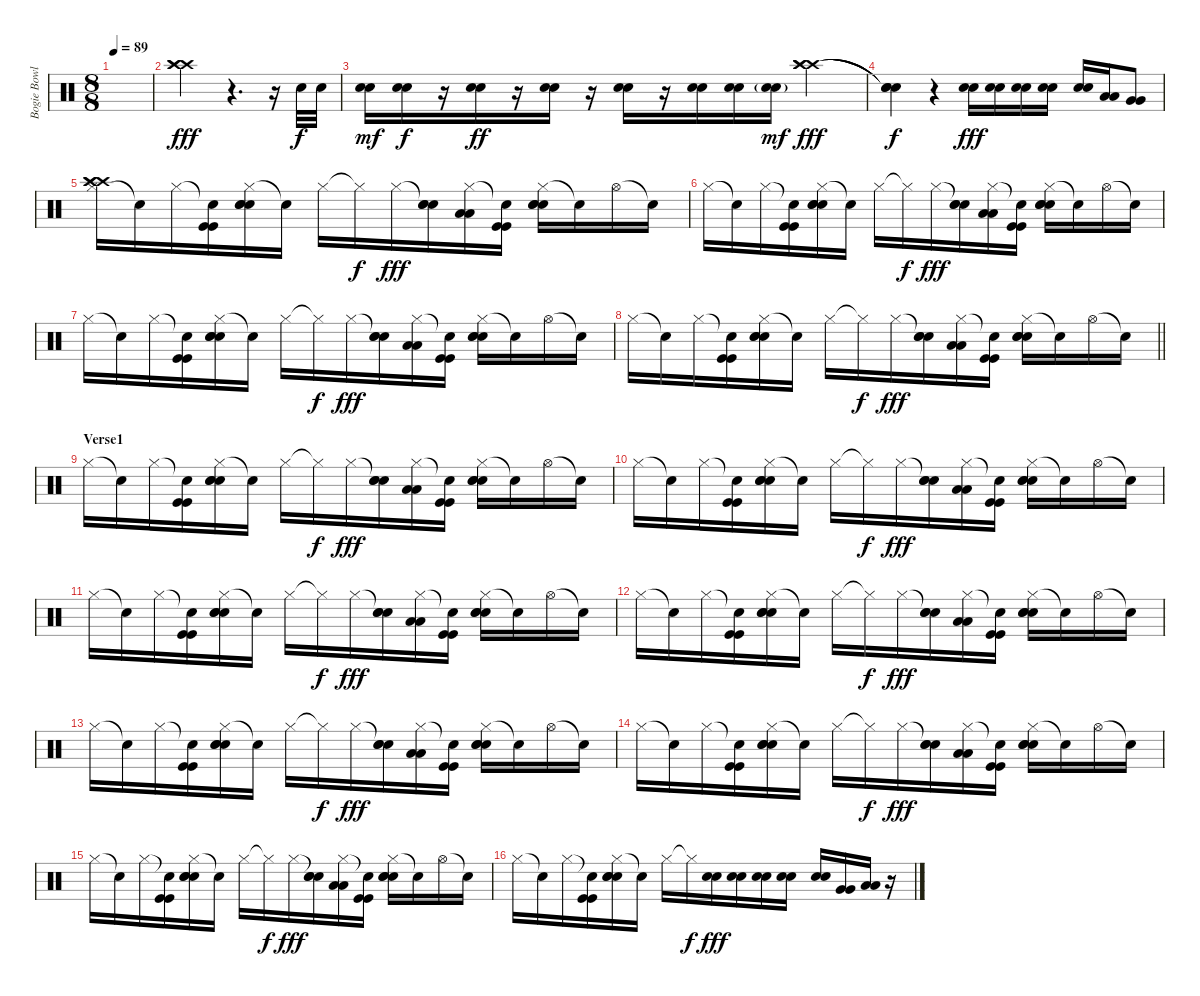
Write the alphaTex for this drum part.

\track ("Bogie Bowles Drums" "Bogie Bowl") {instrument percussion}
\staff {score}
\articulation defaults
\ts (8 8)
\tempo 89
\clef neutral
\ks c
|
("Crash high (hit)" "Crash high (hit)" "Crash high (hit)").2{dy fff} r.4{d} r.16 "Snare (hit) 2".32{dy f} "Snare (hit) 2".32 |
("Snare (hit) 2" "Snare (hit) 2").16{dy mf} ("Snare (hit) 2" "Snare (hit) 2").16{dy f} r.16 ("Snare (hit) 2" "Snare (hit) 2").16{dy ff} r.16 ("Snare (hit) 2" "Snare (hit) 2").16 r.16 ("Snare (hit) 2" "Snare (hit) 2").16 r.16 ("Snare (hit) 2" "Snare (hit) 2").16 ("Snare (hit) 2" "Snare (hit) 2").16 ("Snare (hit) 2"{g} "Snare (hit) 2"{g}).16{dy mf} ("Crash high (hit)" "Crash high (hit)" "Crash high (hit)").4{dy fff} |
("Snare (hit)"{t} "Snare (hit)"{t} "Snare (hit)"{t}).4{dy f} r.4 ("Snare (hit) 2" "Snare (hit) 2").16{dy fff} ("Snare (hit) 2" "Snare (hit) 2").16 ("Snare (hit) 2" "Snare (hit) 2").16 ("Snare (hit) 2" "Snare (hit) 2").16 ("Snare (hit) 2" "Snare (hit) 2").16 ("Low Tom (hit)" "Low Tom (hit)").16 ("Very Low Tom (hit)" "Very Low Tom (hit)").8 |
("Hi-Hat (closed)" "Crash high (hit)" "Crash high (hit)" "Crash high (hit)").16 "Snare (hit)"{t}.16 "Hi-Hat (closed)".16 ("Snare (hit)"{t} "Kick (hit)" "Kick (hit)").16 ("Hi-Hat (closed)" "Snare (hit) 2" "Snare (hit) 2" "Snare (hit) 2").16 "Snare (hit)"{t}.16 "Hi-Hat (closed)".16 "Hi-Hat (closed)"{t}.16{dy f} "Hi-Hat (closed)".16{dy fff} ("Snare (hit)"{t} "Snare (hit) 2" "Snare (hit) 2").16 ("Hi-Hat (closed)" "Low Tom (hit)" "Low Tom (hit)").16 ("Snare (hit)"{t} "Kick (hit)" "Kick (hit)").16 ("Hi-Hat (closed)" "Snare (hit) 2" "Snare (hit) 2" "Snare (hit) 2").16 "Snare (hit)"{t}.16 "Hi-Hat (open)".16 "Snare (hit)"{t}.16 |
"Hi-Hat (closed)".16 "Snare (hit)"{t}.16 "Hi-Hat (closed)".16 ("Snare (hit)"{t} "Kick (hit)" "Kick (hit)").16 ("Hi-Hat (closed)" "Snare (hit) 2" "Snare (hit) 2" "Snare (hit) 2").16 "Snare (hit)"{t}.16 "Hi-Hat (closed)".16 "Hi-Hat (closed)"{t}.16{dy f} "Hi-Hat (closed)".16{dy fff} ("Snare (hit)"{t} "Snare (hit) 2" "Snare (hit) 2").16 ("Hi-Hat (closed)" "Low Tom (hit)" "Low Tom (hit)").16 ("Snare (hit)"{t} "Kick (hit)" "Kick (hit)").16 ("Hi-Hat (closed)" "Snare (hit) 2" "Snare (hit) 2" "Snare (hit) 2").16 "Snare (hit)"{t}.16 "Hi-Hat (open)".16 "Snare (hit)"{t}.16 |
"Hi-Hat (closed)".16 "Snare (hit)"{t}.16 "Hi-Hat (closed)".16 ("Snare (hit)"{t} "Kick (hit)" "Kick (hit)").16 ("Hi-Hat (closed)" "Snare (hit) 2" "Snare (hit) 2" "Snare (hit) 2").16 "Snare (hit)"{t}.16 "Hi-Hat (closed)".16 "Hi-Hat (closed)"{t}.16{dy f} "Hi-Hat (closed)".16{dy fff} ("Snare (hit)"{t} "Snare (hit) 2" "Snare (hit) 2").16 ("Hi-Hat (closed)" "Low Tom (hit)" "Low Tom (hit)").16 ("Snare (hit)"{t} "Kick (hit)" "Kick (hit)").16 ("Hi-Hat (closed)" "Snare (hit) 2" "Snare (hit) 2" "Snare (hit) 2").16 "Snare (hit)"{t}.16 "Hi-Hat (open)".16 "Snare (hit)"{t}.16 |
\barLineRight lightlight "Hi-Hat (closed)".16 "Snare (hit)"{t}.16 "Hi-Hat (closed)".16
("Snare (hit)"{t} "Kick (hit)" "Kick (hit)").16 ("Hi-Hat (closed)" "Snare (hit) 2" "Snare (hit) 2" "Snare (hit) 2").16 "Snare (hit)"{t}.16 "Hi-Hat (closed)".16 "Hi-Hat (closed)"{t}.16{dy f} "Hi-Hat (closed)".16{dy fff} ("Snare (hit)"{t} "Snare (hit) 2" "Snare (hit) 2").16 ("Hi-Hat (closed)" "Low Tom (hit)" "Low Tom (hit)").16 ("Snare (hit)"{t} "Kick (hit)" "Kick (hit)").16 ("Hi-Hat (closed)" "Snare (hit) 2" "Snare (hit) 2" "Snare (hit) 2").16 "Snare (hit)"{t}.16 "Hi-Hat (open)".16 "Snare (hit)"{t}.16 |
\section ("" "Verse1")
"Hi-Hat (closed)".16 "Snare (hit)"{t}.16 "Hi-Hat (closed)".16 ("Snare (hit)"{t} "Kick (hit)" "Kick (hit)").16 ("Hi-Hat (closed)" "Snare (hit) 2" "Snare (hit) 2" "Snare (hit) 2").16 "Snare (hit)"{t}.16 "Hi-Hat (closed)".16 "Hi-Hat (closed)"{t}.16{dy f} "Hi-Hat (closed)".16{dy fff} ("Snare (hit)"{t} "Snare (hit) 2" "Snare (hit) 2").16 ("Hi-Hat (closed)" "Low Tom (hit)" "Low Tom (hit)").16 ("Snare (hit)"{t} "Kick (hit)" "Kick (hit)").16 ("Hi-Hat (closed)" "Snare (hit) 2" "Snare (hit) 2" "Snare (hit) 2").16 "Snare (hit)"{t}.16 "Hi-Hat (open)".16 "Snare (hit)"{t}.16 |
"Hi-Hat (closed)".16 "Snare (hit)"{t}.16 "Hi-Hat (closed)".16 ("Snare (hit)"{t} "Kick (hit)" "Kick (hit)").16 ("Hi-Hat (closed)" "Snare (hit) 2" "Snare (hit) 2" "Snare (hit) 2").16 "Snare (hit)"{t}.16 "Hi-Hat (closed)".16 "Hi-Hat (closed)"{t}.16{dy f} "Hi-Hat (closed)".16{dy fff} ("Snare (hit)"{t} "Snare (hit) 2" "Snare (hit) 2").16 ("Hi-Hat (closed)" "Low Tom (hit)" "Low Tom (hit)").16 ("Snare (hit)"{t} "Kick (hit)" "Kick (hit)").16 ("Hi-Hat (closed)" "Snare (hit) 2" "Snare (hit) 2" "Snare (hit) 2").16 "Snare (hit)"{t}.16 "Hi-Hat (open)".16 "Snare (hit)"{t}.16 |
"Hi-Hat (closed)".16 "Snare (hit)"{t}.16 "Hi-Hat (closed)".16 ("Snare (hit)"{t} "Kick (hit)" "Kick (hit)").16 ("Hi-Hat (closed)" "Snare (hit) 2" "Snare (hit) 2" "Snare (hit) 2").16 "Snare (hit)"{t}.16 "Hi-Hat (closed)".16 "Hi-Hat (closed)"{t}.16{dy f} "Hi-Hat (closed)".16{dy fff} ("Snare (hit)"{t} "Snare (hit) 2" "Snare (hit) 2").16 ("Hi-Hat (closed)" "Low Tom (hit)" "Low Tom (hit)").16 ("Snare (hit)"{t} "Kick (hit)" "Kick (hit)").16 ("Hi-Hat (closed)" "Snare (hit) 2" "Snare (hit) 2" "Snare (hit) 2").16 "Snare (hit)"{t}.16 "Hi-Hat (open)".16 "Snare (hit)"{t}.16 |
"Hi-Hat (closed)".16 "Snare (hit)"{t}.16 "Hi-Hat (closed)".16 ("Snare (hit)"{t} "Kick (hit)" "Kick (hit)").16 ("Hi-Hat (closed)" "Snare (hit) 2" "Snare (hit) 2" "Snare (hit) 2").16 "Snare (hit)"{t}.16 "Hi-Hat (closed)".16 "Hi-Hat (closed)"{t}.16{dy f} "Hi-Hat (closed)".16{dy fff} ("Snare (hit)"{t} "Snare (hit) 2" "Snare (hit) 2").16 ("Hi-Hat (closed)" "Low Tom (hit)" "Low Tom (hit)").16 ("Snare (hit)"{t} "Kick (hit)" "Kick (hit)").16 ("Hi-Hat (closed)" "Snare (hit) 2" "Snare (hit) 2" "Snare (hit) 2").16 "Snare (hit)"{t}.16 "Hi-Hat (open)".16 "Snare (hit)"{t}.16 |
"Hi-Hat (closed)".16 "Snare (hit)"{t}.16 "Hi-Hat (closed)".16 ("Snare (hit)"{t} "Kick (hit)" "Kick (hit)").16 ("Hi-Hat (closed)" "Snare (hit) 2" "Snare (hit) 2" "Snare (hit) 2").16 "Snare (hit)"{t}.16 "Hi-Hat (closed)".16 "Hi-Hat (closed)"{t}.16{dy f} "Hi-Hat (closed)".16{dy fff} ("Snare (hit)"{t} "Snare (hit) 2" "Snare (hit) 2").16 ("Hi-Hat (closed)" "Low Tom (hit)" "Low Tom (hit)").16 ("Snare (hit)"{t} "Kick (hit)" "Kick (hit)").16 ("Hi-Hat (closed)" "Snare (hit) 2" "Snare (hit) 2" "Snare (hit) 2").16 "Snare (hit)"{t}.16 "Hi-Hat (open)".16 "Snare (hit)"{t}.16 |
"Hi-Hat (closed)".16 "Snare (hit)"{t}.16 "Hi-Hat (closed)".16 ("Snare (hit)"{t} "Kick (hit)" "Kick (hit)").16 ("Hi-Hat (closed)" "Snare (hit) 2" "Snare (hit) 2" "Snare (hit) 2").16 "Snare (hit)"{t}.16 "Hi-Hat (closed)".16 "Hi-Hat (closed)"{t}.16{dy f} "Hi-Hat (closed)".16{dy fff} ("Snare (hit)"{t} "Snare (hit) 2" "Snare (hit) 2").16 ("Hi-Hat (closed)" "Low Tom (hit)" "Low Tom (hit)").16 ("Snare (hit)"{t} "Kick (hit)" "Kick (hit)").16 ("Hi-Hat (closed)" "Snare (hit) 2" "Snare (hit) 2" "Snare (hit) 2").16 "Snare (hit)"{t}.16 "Hi-Hat (open)".16 "Snare (hit)"{t}.16 |
"Hi-Hat (closed)".16 "Snare (hit)"{t}.16 "Hi-Hat (closed)".16 ("Snare (hit)"{t} "Kick (hit)" "Kick (hit)").16 ("Hi-Hat (closed)" "Snare (hit) 2" "Snare (hit) 2" "Snare (hit) 2").16 "Snare (hit)"{t}.16 "Hi-Hat (closed)".16 "Hi-Hat (closed)"{t}.16{dy f} "Hi-Hat (closed)".16{dy fff} ("Snare (hit)"{t} "Snare (hit) 2" "Snare (hit) 2").16 ("Hi-Hat (closed)" "Low Tom (hit)" "Low Tom (hit)").16 ("Snare (hit)"{t} "Kick (hit)" "Kick (hit)").16 ("Hi-Hat (closed)" "Snare (hit) 2" "Snare (hit) 2" "Snare (hit) 2").16 "Snare (hit)"{t}.16 "Hi-Hat (open)".16 "Snare (hit)"{t}.16 |
"Hi-Hat (closed)".16 "Snare (hit)"{t}.16 "Hi-Hat (closed)".16 ("Snare (hit)"{t} "Kick (hit)" "Kick (hit)").16 ("Hi-Hat (closed)" "Snare (hit) 2" "Snare (hit) 2" "Snare (hit) 2").16 "Snare (hit)"{t}.16 "Hi-Hat (closed)".16 "Hi-Hat (closed)"{t}.16{dy f} ("Snare (hit) 2" "Snare (hit) 2").16{dy fff} ("Snare (hit) 2" "Snare (hit) 2").16 ("Snare (hit) 2" "Snare (hit) 2").16 ("Snare (hit) 2" "Snare (hit) 2").16 ("Snare (hit) 2" "Snare (hit) 2").16 ("Very Low Tom (hit)" "Very Low Tom (hit)").16 ("Low Floor Tom (hit)" "Low Floor Tom (hit)").16 r.16
